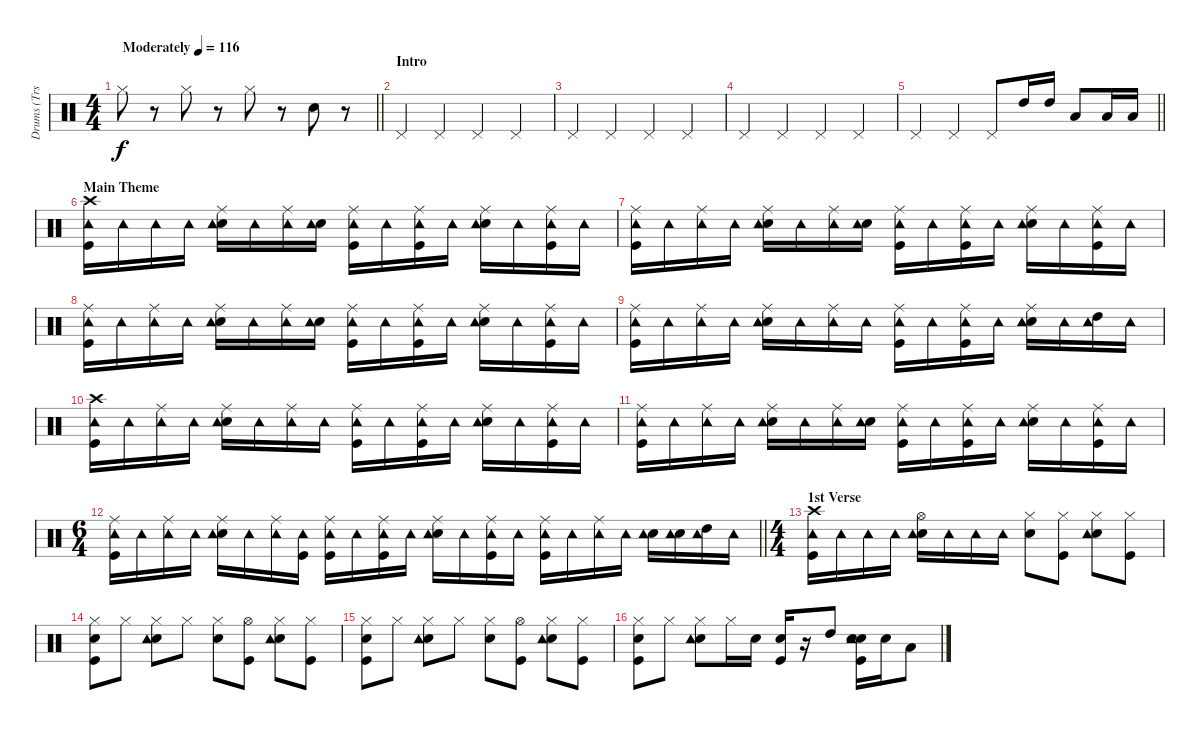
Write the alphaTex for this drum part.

\track ("Drums (Trs. 7-8A, 10A/7-8B, 10B, 12-13B)" "Drums (Trs") {mute instrument percussion}
\staff {score}
\articulation defaults
\ts (4 4)
\tempo (116 "Moderately")
\clef neutral
\barLineRight lightlight
\ks c "Hi-Hat (closed)".8{dy f}
r.8 "Hi-Hat (closed)".8 r.8 "Hi-Hat (closed)".8 r.8 "Electric Snare (hit)".8 r.8 |
\section ("" "Intro")
"Pedal Hi-Hat (hit)".4 "Pedal Hi-Hat (hit)".4 "Pedal Hi-Hat (hit)".4 "Pedal Hi-Hat (hit)".4 |
"Pedal Hi-Hat (hit)".4 "Pedal Hi-Hat (hit)".4 "Pedal Hi-Hat (hit)".4 "Pedal Hi-Hat (hit)".4 |
"Pedal Hi-Hat (hit)".4 "Pedal Hi-Hat (hit)".4 "Pedal Hi-Hat (hit)".4 "Pedal Hi-Hat (hit)".4 |
\barLineRight lightlight "Pedal Hi-Hat (hit)".4 "Pedal Hi-Hat (hit)".4 "Pedal Hi-Hat (hit)".8 "High Tom (hit)".16 "High Tom (hit)".16 "Low Tom (hit)".8 "Low Tom (hit)".16 "Low Tom (hit)".16
|
\section ("" "Main Theme")
("Crash high (hit)" "Kick (hit)" "Tambourine (hit)").16 "Tambourine (hit)".16 "Tambourine (hit)".16 "Tambourine (hit)".16 ("Ride (middle)" "Electric Snare (hit)" "Tambourine (hit)").16 "Tambourine (hit)".16 ("Ride (middle)" "Tambourine (hit)").16 ("Electric Snare (hit)" "Tambourine (hit)").16 ("Kick (hit)" "Ride (middle)" "Tambourine (hit)").16 "Tambourine (hit)".16 ("Ride (middle)" "Kick (hit)" "Tambourine (hit)").16 "Tambourine (hit)".16 ("Electric Snare (hit)" "Ride (middle)" "Tambourine (hit)").16 "Tambourine (hit)".16 ("Ride (middle)" "Kick (hit)" "Tambourine (hit)").16 "Tambourine (hit)".16 |
("Kick (hit)" "Ride (middle)" "Tambourine (hit)").16 "Tambourine (hit)".16 ("Ride (middle)" "Tambourine (hit)").16 "Tambourine (hit)".16 ("Electric Snare (hit)" "Ride (middle)" "Tambourine (hit)").16 "Tambourine (hit)".16 ("Ride (middle)" "Tambourine (hit)").16 ("Electric Snare (hit)" "Tambourine (hit)").16 ("Kick (hit)" "Ride (middle)" "Tambourine (hit)").16 "Tambourine (hit)".16 ("Ride (middle)" "Kick (hit)" "Tambourine (hit)").16 "Tambourine (hit)".16 ("Ride (middle)" "Electric Snare (hit)" "Tambourine (hit)").16 "Tambourine (hit)".16 ("Ride (middle)" "Kick (hit)" "Tambourine (hit)").16 "Tambourine (hit)".16 |
("Ride (middle)" "Kick (hit)" "Tambourine (hit)").16 "Tambourine (hit)".16 ("Ride (middle)" "Tambourine (hit)").16 "Tambourine (hit)".16 ("Ride (middle)" "Electric Snare (hit)" "Tambourine (hit)").16 "Tambourine (hit)".16 ("Ride (middle)" "Tambourine (hit)").16 ("Electric Snare (hit)" "Tambourine (hit)").16 ("Ride (middle)" "Kick (hit)" "Tambourine (hit)").16 "Tambourine (hit)".16 ("Ride (middle)" "Kick (hit)" "Tambourine (hit)").16 "Tambourine (hit)".16 ("Electric Snare (hit)" "Ride (middle)" "Tambourine (hit)").16 "Tambourine (hit)".16 ("Ride (middle)" "Kick (hit)" "Tambourine (hit)").16 "Tambourine (hit)".16 |
("Ride (middle)" "Kick (hit)" "Tambourine (hit)").16 "Tambourine (hit)".16 ("Ride (middle)" "Tambourine (hit)").16 "Tambourine (hit)".16 ("Electric Snare (hit)" "Ride (middle)" "Tambourine (hit)").16 "Tambourine (hit)".16 ("Ride (middle)" "Tambourine (hit)").16 "Tambourine (hit)".16 ("Kick (hit)" "Ride (middle)" "Tambourine (hit)").16 "Tambourine (hit)".16 ("Kick (hit)" "Ride (middle)" "Tambourine (hit)").16 "Tambourine (hit)".16 ("Electric Snare (hit)" "Ride (middle)" "Tambourine (hit)").16 "Tambourine (hit)".16 ("High Tom (hit)" "Tambourine (hit)").16 "Tambourine (hit)".16 |
("Crash high (hit)" "Kick (hit)" "Tambourine (hit)").16 "Tambourine (hit)".16 ("Ride (middle)" "Tambourine (hit)").16 "Tambourine (hit)".16 ("Electric Snare (hit)" "Ride (middle)" "Tambourine (hit)").16 "Tambourine (hit)".16 ("Ride (middle)" "Tambourine (hit)").16 "Tambourine (hit)".16 ("Kick (hit)" "Ride (middle)" "Tambourine (hit)").16 "Tambourine (hit)".16 ("Ride (middle)" "Kick (hit)" "Tambourine (hit)").16 "Tambourine (hit)".16 ("Ride (middle)" "Electric Snare (hit)" "Tambourine (hit)").16 "Tambourine (hit)".16 ("Kick (hit)" "Ride (middle)" "Tambourine (hit)").16 "Tambourine (hit)".16 |
("Ride (middle)" "Kick (hit)" "Tambourine (hit)").16 "Tambourine (hit)".16 ("Ride (middle)" "Tambourine (hit)").16 "Tambourine (hit)".16 ("Electric Snare (hit)" "Ride (middle)" "Tambourine (hit)").16 "Tambourine (hit)".16 ("Ride (middle)" "Tambourine (hit)").16 ("Electric Snare (hit)" "Tambourine (hit)").16 ("Ride (middle)" "Kick (hit)" "Tambourine (hit)").16 "Tambourine (hit)".16 ("Kick (hit)" "Ride (middle)" "Tambourine (hit)").16 "Tambourine (hit)".16 ("Ride (middle)" "Electric Snare (hit)" "Tambourine (hit)").16 "Tambourine (hit)".16 ("Kick (hit)" "Ride (middle)" "Tambourine (hit)").16 "Tambourine (hit)".16 |
\ts (6 4)
\barLineRight lightlight
("Ride (middle)" "Kick (hit)" "Tambourine (hit)").16 "Tambourine (hit)".16 ("Ride (middle)" "Tambourine (hit)").16 "Tambourine (hit)".16 ("Electric Snare (hit)" "Ride (middle)" "Tambourine (hit)").16 "Tambourine (hit)".16 ("Ride (middle)" "Tambourine (hit)").16 ("Kick (hit)" "Tambourine (hit)").16 ("Kick (hit)" "Ride (middle)" "Tambourine (hit)").16 "Tambourine (hit)".16 ("Ride (middle)" "Kick (hit)" "Tambourine (hit)").16 "Tambourine (hit)".16 ("Ride (middle)" "Electric Snare (hit)" "Tambourine (hit)").16 "Tambourine (hit)".16 ("Ride (middle)" "Kick (hit)" "Tambourine (hit)").16 "Tambourine (hit)".16 ("Ride (middle)" "Kick (hit)" "Tambourine (hit)").16 "Tambourine (hit)".16 ("Ride (middle)" "Tambourine (hit)").16 "Tambourine (hit)".16 ("Electric Snare (hit)" "Tambourine (hit)").16 ("Electric Snare (hit)" "Tambourine (hit)").16 ("High Tom (hit)" "Tambourine (hit)").16 "Tambourine (hit)".16 |
\ts (4 4)
\section ("" "1st Verse")
("Kick (hit)" "Crash high (hit)" "Tambourine (hit)").16 "Tambourine (hit)".16 "Tambourine (hit)".16 "Tambourine (hit)".16 ("Hi-Hat (open)" "Electric Snare (hit)" "Tambourine (hit)").16 "Tambourine (hit)".16 "Tambourine (hit)".16 "Tambourine (hit)".16 ("Hi-Hat (closed)" "Electric Snare (hit)").8 ("Kick (hit)" "Hi-Hat (closed)").8 ("Hi-Hat (closed)" "Electric Snare (hit)" "Tambourine (hit)").8 ("Hi-Hat (closed)" "Kick (hit)").8 |
("Hi-Hat (closed)" "Electric Snare (hit)" "Kick (hit)").8 "Hi-Hat (closed)".8 ("Hi-Hat (closed)" "Electric Snare (hit)" "Tambourine (hit)").8 "Hi-Hat (closed)".8 ("Hi-Hat (closed)" "Electric Snare (hit)").8 ("Kick (hit)" "Hi-Hat (open)").8 ("Hi-Hat (closed)" "Electric Snare (hit)" "Tambourine (hit)").8 ("Hi-Hat (closed)" "Kick (hit)").8 |
("Hi-Hat (closed)" "Electric Snare (hit)" "Kick (hit)").8 "Hi-Hat (closed)".8 ("Hi-Hat (closed)" "Electric Snare (hit)" "Tambourine (hit)").8 "Hi-Hat (closed)".8 ("Electric Snare (hit)" "Hi-Hat (closed)").8 ("Kick (hit)" "Hi-Hat (open)").8 ("Hi-Hat (closed)" "Electric Snare (hit)" "Tambourine (hit)").8 ("Kick (hit)" "Hi-Hat (closed)").8 |
("Hi-Hat (closed)" "Kick (hit)" "Electric Snare (hit)").8 "Hi-Hat (closed)".8 ("Electric Snare (hit)" "Hi-Hat (closed)" "Tambourine (hit)").8 "Hi-Hat (closed)".16 "Electric Snare (hit)".16 ("Electric Snare (hit)" "Kick (hit)").16 r.16 "High Tom (hit)".8 ("Snare (hit) 2" "Kick (hit)" "Electric Snare (hit)" "Tambourine (hit)").16 "Electric Snare (hit)".16 "Low Tom (hit)".8
